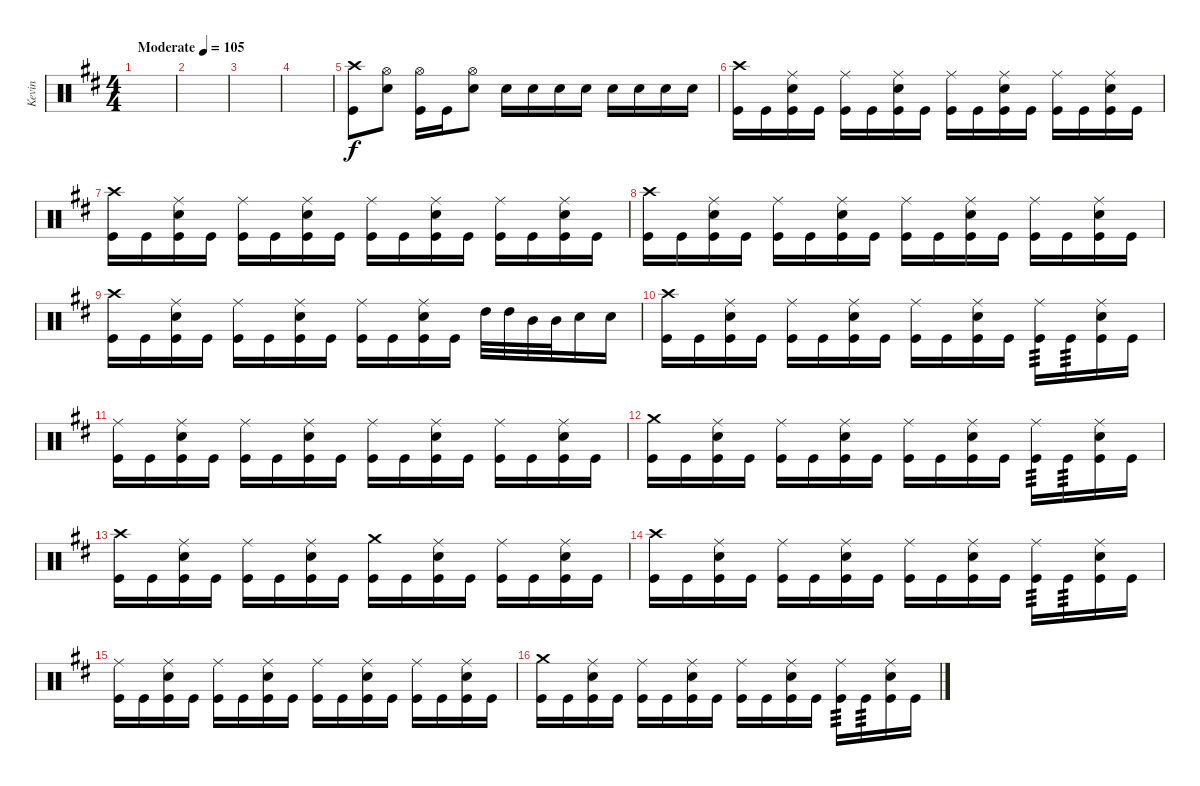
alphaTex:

\track ("Kevin" "Kevin") {instrument percussion}
\staff {score}
\articulation defaults
\ts (4 4)
\tempo (105 "Moderate")
\clef neutral
\ks d
|
|
|
|
("Crash high (hit)" "Kick (hit)").8 ("Hi-Hat (open)" "Snare (hit) 2").8 ("Hi-Hat (open)" "Kick (hit)").16 "Kick (hit)".16 ("Hi-Hat (open)" "Snare (hit) 2").8 "Snare (hit) 2".16 "Snare (hit) 2".16 "Snare (hit) 2".16 "Snare (hit) 2".16 "Snare (hit) 2".16 "Snare (hit) 2".16 "Snare (hit) 2".16 "Snare (hit) 2".16 |
("Crash high (hit)" "Kick (hit)").16 "Kick (hit)".16 ("Ride (middle)" "Snare (hit) 2" "Kick (hit)").16 "Kick (hit)".16 ("Ride (middle)" "Kick (hit)").16 "Kick (hit)".16 ("Ride (middle)" "Snare (hit) 2" "Kick (hit)").16 "Kick (hit)".16 ("Ride (middle)" "Kick (hit)").16 "Kick (hit)".16 ("Ride (middle)" "Snare (hit) 2" "Kick (hit)").16 "Kick (hit)".16 ("Ride (middle)" "Kick (hit)").16 "Kick (hit)".16 ("Ride (middle)" "Snare (hit) 2" "Kick (hit)").16 "Kick (hit)".16 |
("Crash high (hit)" "Kick (hit)").16 "Kick (hit)".16 ("Ride (middle)" "Snare (hit) 2" "Kick (hit)").16 "Kick (hit)".16 ("Ride (middle)" "Kick (hit)").16 "Kick (hit)".16 ("Ride (middle)" "Snare (hit) 2" "Kick (hit)").16 "Kick (hit)".16 ("Ride (middle)" "Kick (hit)").16 "Kick (hit)".16 ("Ride (middle)" "Snare (hit) 2" "Kick (hit)").16 "Kick (hit)".16 ("Ride (middle)" "Kick (hit)").16 "Kick (hit)".16 ("Ride (middle)" "Snare (hit) 2" "Kick (hit)").16 "Kick (hit)".16 |
("Crash high (hit)" "Kick (hit)").16 "Kick (hit)".16 ("Ride (middle)" "Snare (hit) 2" "Kick (hit)").16 "Kick (hit)".16 ("Ride (middle)" "Kick (hit)").16 "Kick (hit)".16 ("Ride (middle)" "Snare (hit) 2" "Kick (hit)").16 "Kick (hit)".16 ("Ride (middle)" "Kick (hit)").16 "Kick (hit)".16 ("Ride (middle)" "Snare (hit) 2" "Kick (hit)").16 "Kick (hit)".16 ("Ride (middle)" "Kick (hit)").16 "Kick (hit)".16 ("Ride (middle)" "Snare (hit) 2" "Kick (hit)").16 "Kick (hit)".16 |
("Crash high (hit)" "Kick (hit)").16 "Kick (hit)".16 ("Ride (middle)" "Snare (hit) 2" "Kick (hit)").16 "Kick (hit)".16 ("Ride (middle)" "Kick (hit)").16 "Kick (hit)".16 ("Ride (middle)" "Snare (hit) 2" "Kick (hit)").16 "Kick (hit)".16 ("Ride (middle)" "Kick (hit)").16 "Kick (hit)".16 ("Ride (middle)" "Snare (hit) 2" "Kick (hit)").16 "Kick (hit)".16 "High Tom (hit)".32 "High Tom (hit)".32 "Mid Tom (hit)".32 "Mid Tom (hit)".32 "Snare (hit) 2".16 "Snare (hit) 2".16 |
("Crash high (hit)" "Kick (hit)").16 "Kick (hit)".16 ("Ride (middle)" "Snare (hit) 2" "Kick (hit)").16 "Kick (hit)".16 ("Ride (middle)" "Kick (hit)").16 "Kick (hit)".16 ("Ride (middle)" "Snare (hit) 2" "Kick (hit)").16 "Kick (hit)".16 ("Ride (middle)" "Kick (hit)").16 "Kick (hit)".16 ("Ride (middle)" "Snare (hit) 2" "Kick (hit)").16 "Kick (hit)".16 ("Ride (middle)" "Kick (hit)").16{tp 3} "Kick (hit)".16{tp 3} ("Ride (middle)" "Snare (hit) 2" "Kick (hit)").16 "Kick (hit)".16 |
("Ride (middle)" "Kick (hit)").16 "Kick (hit)".16 ("Ride (middle)" "Snare (hit) 2" "Kick (hit)").16 "Kick (hit)".16 ("Ride (middle)" "Kick (hit)").16 "Kick (hit)".16 ("Ride (middle)" "Snare (hit) 2" "Kick (hit)").16 "Kick (hit)".16 ("Ride (middle)" "Kick (hit)").16 "Kick (hit)".16 ("Ride (middle)" "Snare (hit) 2" "Kick (hit)").16 "Kick (hit)".16 ("Ride (middle)" "Kick (hit)").16 "Kick (hit)".16 ("Ride (middle)" "Snare (hit) 2" "Kick (hit)").16 "Kick (hit)".16 |
("Crash medium (hit)" "Kick (hit)").16 "Kick (hit)".16 ("Ride (middle)" "Snare (hit) 2" "Kick (hit)").16 "Kick (hit)".16 ("Ride (middle)" "Kick (hit)").16 "Kick (hit)".16 ("Ride (middle)" "Snare (hit) 2" "Kick (hit)").16 "Kick (hit)".16 ("Ride (middle)" "Kick (hit)").16 "Kick (hit)".16 ("Ride (middle)" "Snare (hit) 2" "Kick (hit)").16 "Kick (hit)".16 ("Ride (middle)" "Kick (hit)").16{tp 3} "Kick (hit)".16{tp 3} ("Ride (middle)" "Snare (hit) 2" "Kick (hit)").16 "Kick (hit)".16 |
("Crash high (hit)" "Kick (hit)").16 "Kick (hit)".16 ("Ride (middle)" "Snare (hit) 2" "Kick (hit)").16 "Kick (hit)".16 ("Ride (middle)" "Kick (hit)").16 "Kick (hit)".16 ("Ride (middle)" "Snare (hit) 2" "Kick (hit)").16 "Kick (hit)".16 ("Crash medium (hit)" "Kick (hit)").16 "Kick (hit)".16 ("Ride (middle)" "Snare (hit) 2" "Kick (hit)").16 "Kick (hit)".16 ("Ride (middle)" "Kick (hit)").16 "Kick (hit)".16 ("Ride (middle)" "Snare (hit) 2" "Kick (hit)").16 "Kick (hit)".16 |
("Crash high (hit)" "Kick (hit)").16 "Kick (hit)".16 ("Ride (middle)" "Snare (hit) 2" "Kick (hit)").16 "Kick (hit)".16 ("Ride (middle)" "Kick (hit)").16 "Kick (hit)".16 ("Ride (middle)" "Snare (hit) 2" "Kick (hit)").16 "Kick (hit)".16 ("Ride (middle)" "Kick (hit)").16 "Kick (hit)".16 ("Ride (middle)" "Snare (hit) 2" "Kick (hit)").16 "Kick (hit)".16 ("Ride (middle)" "Kick (hit)").16{tp 3} "Kick (hit)".16{tp 3} ("Ride (middle)" "Snare (hit) 2" "Kick (hit)").16 "Kick (hit)".16 |
("Ride (middle)" "Kick (hit)").16 "Kick (hit)".16 ("Ride (middle)" "Snare (hit) 2" "Kick (hit)").16 "Kick (hit)".16 ("Ride (middle)" "Kick (hit)").16 "Kick (hit)".16 ("Ride (middle)" "Snare (hit) 2" "Kick (hit)").16 "Kick (hit)".16 ("Ride (middle)" "Kick (hit)").16 "Kick (hit)".16 ("Ride (middle)" "Snare (hit) 2" "Kick (hit)").16 "Kick (hit)".16 ("Ride (middle)" "Kick (hit)").16 "Kick (hit)".16 ("Ride (middle)" "Snare (hit) 2" "Kick (hit)").16 "Kick (hit)".16 |
("Crash medium (hit)" "Kick (hit)").16 "Kick (hit)".16 ("Ride (middle)" "Snare (hit) 2" "Kick (hit)").16 "Kick (hit)".16 ("Ride (middle)" "Kick (hit)").16 "Kick (hit)".16 ("Ride (middle)" "Snare (hit) 2" "Kick (hit)").16 "Kick (hit)".16 ("Ride (middle)" "Kick (hit)").16 "Kick (hit)".16 ("Ride (middle)" "Snare (hit) 2" "Kick (hit)").16 "Kick (hit)".16 ("Ride (middle)" "Kick (hit)").16{tp 3} "Kick (hit)".16{tp 3} ("Ride (middle)" "Snare (hit) 2" "Kick (hit)").16 "Kick (hit)".16
